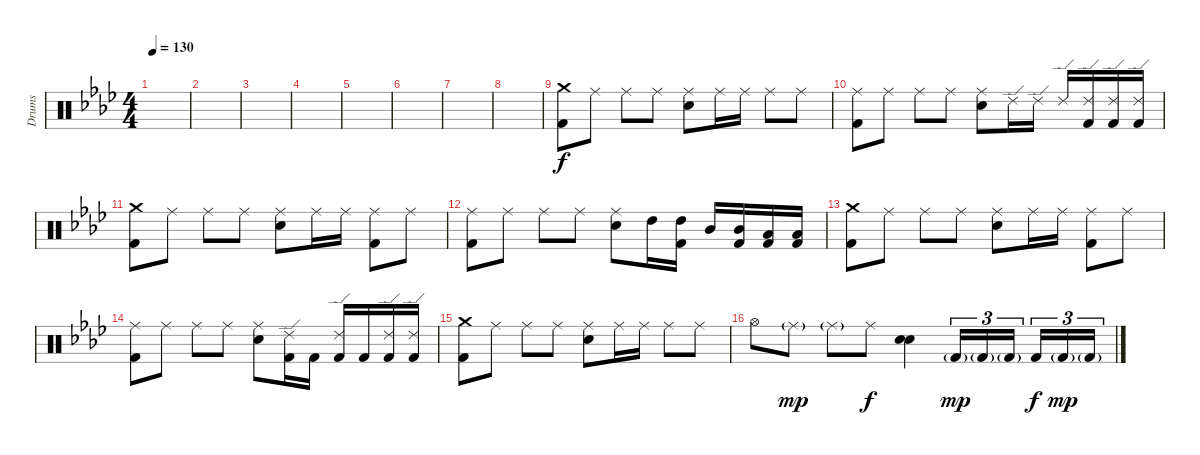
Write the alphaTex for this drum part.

\track ("Drums" "Drums") {instrument percussion}
\staff {score}
\articulation defaults
\ts (4 4)
\tempo 130
\clef neutral
\ks ab
|
|
|
|
|
|
|
|
("Crash medium (hit)" "Kick (hit) 2").8{volume 16} "Ride (middle)".8 "Ride (middle)".8 "Ride (middle)".8 ("Electric Snare (hit)" "Ride (middle)").8 "Ride (middle)".16 "Ride (middle)".16 "Ride (middle)".8 "Ride (middle)".8 |
("Kick (hit) 2" "Ride (middle)").8 "Ride (middle)".8 "Ride (middle)".8 "Ride (middle)".8 ("Electric Snare (hit)" "Ride (middle)").8 "Ride (edge) 2".16 "Ride (edge) 2".16 "Ride (edge) 2".16 ("Kick (hit) 2" "Ride (edge) 2").16 ("Kick (hit) 2" "Ride (edge) 2").16 ("Kick (hit) 2" "Ride (edge) 2").16 |
("Crash medium (hit)" "Kick (hit) 2").8 "Ride (middle)".8 "Ride (middle)".8 "Ride (middle)".8 ("Electric Snare (hit)" "Ride (middle)").8 "Ride (middle)".16 "Ride (middle)".16 ("Kick (hit) 2" "Ride (middle)").8 "Ride (middle)".8 |
("Kick (hit) 2" "Ride (middle)").8 "Ride (middle)".8 "Ride (middle)".8 "Ride (middle)".8 ("Electric Snare (hit)" "Ride (middle)").8 "High Tom (hit)".16 ("Kick (hit) 2" "High Tom (hit)").16 "Mid Tom (hit)".16 ("Kick (hit) 2" "Mid Tom (hit)").16 ("Kick (hit) 2" "Low Tom (hit)").16 ("Kick (hit) 2" "Low Tom (hit)").16 |
("Crash medium (hit)" "Kick (hit) 2").8 "Ride (middle)".8 "Ride (middle)".8 "Ride (middle)".8 ("Electric Snare (hit)" "Ride (middle)").8 "Ride (middle)".16 "Ride (middle)".16 ("Kick (hit) 2" "Ride (middle)").8 "Ride (middle)".8 |
("Kick (hit) 2" "Ride (middle)").8 "Ride (middle)".8 "Ride (middle)".8 "Ride (middle)".8 ("Electric Snare (hit)" "Ride (middle)").8 ("Kick (hit) 2" "Ride (edge) 2").16 "Kick (hit) 2".16 ("Kick (hit) 2" "Ride (edge) 2").16 "Kick (hit) 2".16 ("Kick (hit) 2" "Ride (edge) 2").16 ("Kick (hit) 2" "Ride (edge) 2").16 |
("Crash medium (hit)" "Kick (hit) 2").8 "Ride (middle)".8 "Ride (middle)".8 "Ride (middle)".8 ("Electric Snare (hit)" "Ride (middle)").8 "Ride (middle)".16 "Ride (middle)".16 "Ride (middle)".8 "Ride (middle)".8 |
"Hi-Hat (open)".8 "Ride (middle)"{g}.8{dy mp} "Ride (middle)"{g}.8 "Ride (middle)".8{dy f} ("Electric Snare (hit)" "Electric Snare (hit)").4 "Kick (hit) 2"{g}.16{tu (3 2) dy mp} "Kick (hit) 2"{g}.16{tu (3 2)} "Kick (hit) 2"{g}.16{tu (3 2)} "Kick (hit) 2".16{tu (3 2) dy f} "Kick (hit) 2"{g}.16{tu (3 2) dy mp} "Kick (hit) 2"{g}.16{tu (3 2)}
